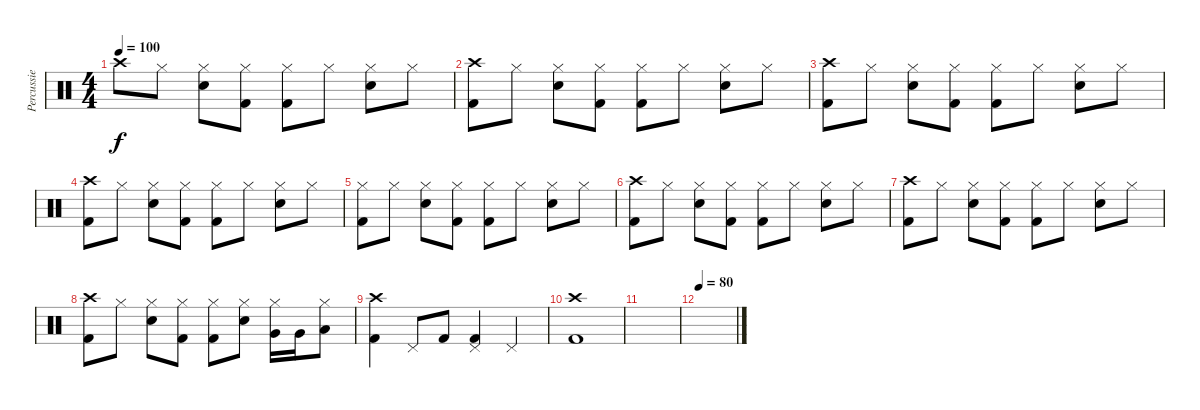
\track ("Percussie" "Percussie") {instrument percussion}
\staff {score}
\articulation defaults
\ts (4 4)
\tempo 100
\clef neutral
\ks c "Crash high (hit)".8{dy f} "Hi-Hat (closed)".8
("Hi-Hat (closed)" "Snare (hit) 2").8 ("Hi-Hat (closed)" "Kick (hit) 2").8 ("Hi-Hat (closed)" "Kick (hit) 2").8 "Hi-Hat (closed)".8 ("Hi-Hat (closed)" "Snare (hit) 2").8 "Hi-Hat (closed)".8 |
("Crash high (hit)" "Kick (hit) 2").8 "Hi-Hat (closed)".8 ("Hi-Hat (closed)" "Snare (hit) 2").8 ("Hi-Hat (closed)" "Kick (hit) 2").8 ("Hi-Hat (closed)" "Kick (hit) 2").8 "Hi-Hat (closed)".8 ("Hi-Hat (closed)" "Snare (hit) 2").8 "Hi-Hat (closed)".8 |
("Crash high (hit)" "Kick (hit) 2").8 "Hi-Hat (closed)".8 ("Hi-Hat (closed)" "Snare (hit) 2").8 ("Hi-Hat (closed)" "Kick (hit) 2").8 ("Hi-Hat (closed)" "Kick (hit) 2").8 "Hi-Hat (closed)".8 ("Hi-Hat (closed)" "Snare (hit) 2").8 "Hi-Hat (closed)".8 |
("Crash high (hit)" "Kick (hit) 2").8 "Hi-Hat (closed)".8 ("Hi-Hat (closed)" "Snare (hit) 2").8 ("Hi-Hat (closed)" "Kick (hit) 2").8 ("Hi-Hat (closed)" "Kick (hit) 2").8 "Hi-Hat (closed)".8 ("Hi-Hat (closed)" "Snare (hit) 2").8 "Hi-Hat (closed)".8 |
("Hi-Hat (closed)" "Kick (hit) 2").8 "Hi-Hat (closed)".8 ("Hi-Hat (closed)" "Snare (hit) 2").8 ("Hi-Hat (closed)" "Kick (hit) 2").8 ("Hi-Hat (closed)" "Kick (hit) 2").8 "Hi-Hat (closed)".8 ("Hi-Hat (closed)" "Snare (hit) 2").8 "Hi-Hat (closed)".8 |
("Crash high (hit)" "Kick (hit) 2").8 "Hi-Hat (closed)".8 ("Hi-Hat (closed)" "Snare (hit) 2").8 ("Hi-Hat (closed)" "Kick (hit) 2").8 ("Hi-Hat (closed)" "Kick (hit) 2").8 "Hi-Hat (closed)".8 ("Hi-Hat (closed)" "Snare (hit) 2").8 "Hi-Hat (closed)".8 |
("Crash high (hit)" "Kick (hit) 2").8 "Hi-Hat (closed)".8 ("Hi-Hat (closed)" "Snare (hit) 2").8 ("Hi-Hat (closed)" "Kick (hit) 2").8 ("Hi-Hat (closed)" "Kick (hit) 2").8 "Hi-Hat (closed)".8 ("Hi-Hat (closed)" "Snare (hit) 2").8 "Hi-Hat (closed)".8 |
("Crash high (hit)" "Kick (hit) 2").8 "Hi-Hat (closed)".8 ("Hi-Hat (closed)" "Snare (hit) 2").8 ("Hi-Hat (closed)" "Kick (hit) 2").8 ("Hi-Hat (closed)" "Kick (hit) 2").8 ("Hi-Hat (closed)" "Snare (hit) 2").8 ("Hi-Hat (closed)" "Very Low Tom (hit)").16 "Very Low Tom (hit)".16 ("Hi-Hat (closed)" "Low Tom (hit)").8 |
("Crash high (hit)" "Kick (hit) 2").4 "Pedal Hi-Hat (hit)".8 "Kick (hit) 2".8 ("Pedal Hi-Hat (hit)" "Kick (hit) 2").4 "Pedal Hi-Hat (hit)".4 |
("Crash high (hit)" "Kick (hit) 2").1 |
|
\tempo 80
